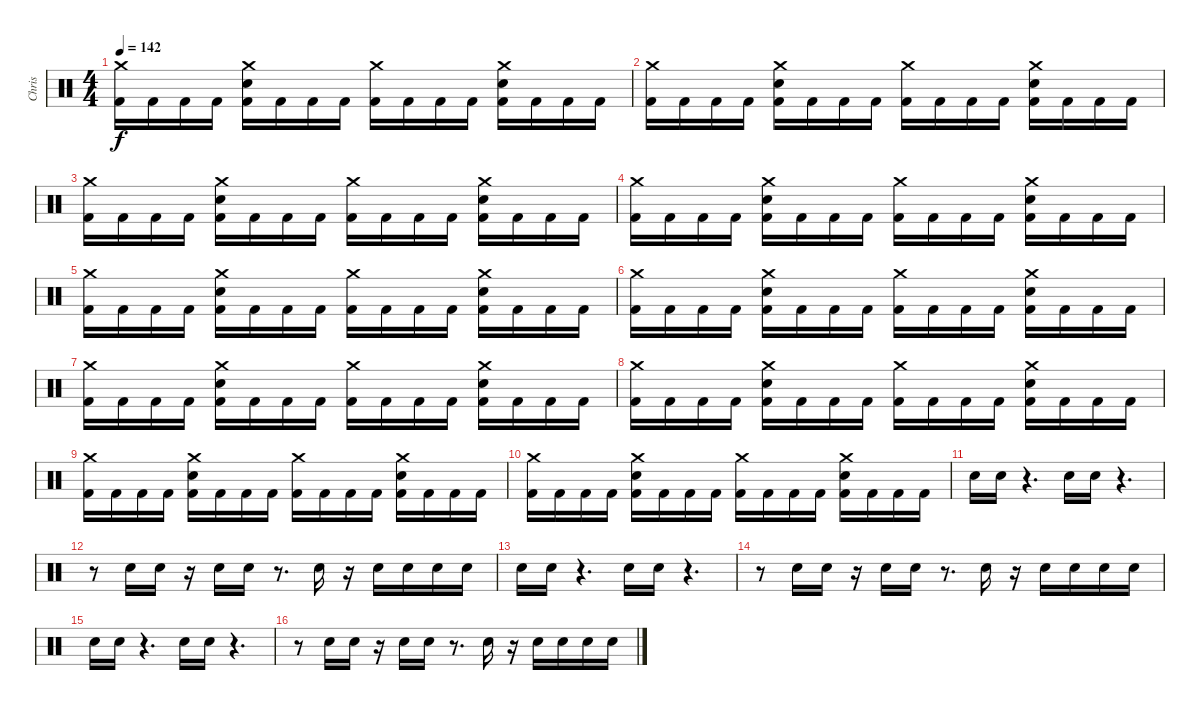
\track ("Chris" "Chris") {instrument percussion}
\staff {score}
\articulation defaults
\ts (4 4)
\tempo 142
\clef neutral
\ks c
("Crash medium (hit)" "Kick (hit) 2").16{dy f} "Kick (hit) 2".16 "Kick (hit) 2".16 "Kick (hit) 2".16 ("Crash medium (hit)" "Snare (hit) 2" "Kick (hit) 2").16 "Kick (hit) 2".16 "Kick (hit) 2".16 "Kick (hit) 2".16 ("Crash medium (hit)" "Kick (hit) 2").16 "Kick (hit) 2".16 "Kick (hit) 2".16 "Kick (hit) 2".16 ("Crash medium (hit)" "Snare (hit) 2" "Kick (hit) 2").16 "Kick (hit) 2".16 "Kick (hit) 2".16 "Kick (hit) 2".16 |
("Crash medium (hit)" "Kick (hit) 2").16 "Kick (hit) 2".16 "Kick (hit) 2".16 "Kick (hit) 2".16 ("Crash medium (hit)" "Snare (hit) 2" "Kick (hit) 2").16 "Kick (hit) 2".16 "Kick (hit) 2".16 "Kick (hit) 2".16 ("Crash medium (hit)" "Kick (hit) 2").16 "Kick (hit) 2".16 "Kick (hit) 2".16 "Kick (hit) 2".16 ("Crash medium (hit)" "Snare (hit) 2" "Kick (hit) 2").16 "Kick (hit) 2".16 "Kick (hit) 2".16 "Kick (hit) 2".16 |
("Crash medium (hit)" "Kick (hit) 2").16 "Kick (hit) 2".16 "Kick (hit) 2".16 "Kick (hit) 2".16 ("Crash medium (hit)" "Snare (hit) 2" "Kick (hit) 2").16 "Kick (hit) 2".16 "Kick (hit) 2".16 "Kick (hit) 2".16 ("Crash medium (hit)" "Kick (hit) 2").16 "Kick (hit) 2".16 "Kick (hit) 2".16 "Kick (hit) 2".16 ("Crash medium (hit)" "Snare (hit) 2" "Kick (hit) 2").16 "Kick (hit) 2".16 "Kick (hit) 2".16 "Kick (hit) 2".16 |
("Crash medium (hit)" "Kick (hit) 2").16 "Kick (hit) 2".16 "Kick (hit) 2".16 "Kick (hit) 2".16 ("Crash medium (hit)" "Snare (hit) 2" "Kick (hit) 2").16 "Kick (hit) 2".16 "Kick (hit) 2".16 "Kick (hit) 2".16 ("Crash medium (hit)" "Kick (hit) 2").16 "Kick (hit) 2".16 "Kick (hit) 2".16 "Kick (hit) 2".16 ("Crash medium (hit)" "Snare (hit) 2" "Kick (hit) 2").16 "Kick (hit) 2".16 "Kick (hit) 2".16 "Kick (hit) 2".16 |
("Crash medium (hit)" "Kick (hit) 2").16 "Kick (hit) 2".16 "Kick (hit) 2".16 "Kick (hit) 2".16 ("Crash medium (hit)" "Snare (hit) 2" "Kick (hit) 2").16 "Kick (hit) 2".16 "Kick (hit) 2".16 "Kick (hit) 2".16 ("Crash medium (hit)" "Kick (hit) 2").16 "Kick (hit) 2".16 "Kick (hit) 2".16 "Kick (hit) 2".16 ("Crash medium (hit)" "Snare (hit) 2" "Kick (hit) 2").16 "Kick (hit) 2".16 "Kick (hit) 2".16 "Kick (hit) 2".16 |
("Crash medium (hit)" "Kick (hit) 2").16 "Kick (hit) 2".16 "Kick (hit) 2".16 "Kick (hit) 2".16 ("Crash medium (hit)" "Snare (hit) 2" "Kick (hit) 2").16 "Kick (hit) 2".16 "Kick (hit) 2".16 "Kick (hit) 2".16 ("Crash medium (hit)" "Kick (hit) 2").16 "Kick (hit) 2".16 "Kick (hit) 2".16 "Kick (hit) 2".16 ("Crash medium (hit)" "Snare (hit) 2" "Kick (hit) 2").16 "Kick (hit) 2".16 "Kick (hit) 2".16 "Kick (hit) 2".16 |
("Crash medium (hit)" "Kick (hit) 2").16 "Kick (hit) 2".16 "Kick (hit) 2".16 "Kick (hit) 2".16 ("Crash medium (hit)" "Snare (hit) 2" "Kick (hit) 2").16 "Kick (hit) 2".16 "Kick (hit) 2".16 "Kick (hit) 2".16 ("Crash medium (hit)" "Kick (hit) 2").16 "Kick (hit) 2".16 "Kick (hit) 2".16 "Kick (hit) 2".16 ("Crash medium (hit)" "Snare (hit) 2" "Kick (hit) 2").16 "Kick (hit) 2".16 "Kick (hit) 2".16 "Kick (hit) 2".16 |
("Crash medium (hit)" "Kick (hit) 2").16 "Kick (hit) 2".16 "Kick (hit) 2".16 "Kick (hit) 2".16 ("Crash medium (hit)" "Snare (hit) 2" "Kick (hit) 2").16 "Kick (hit) 2".16 "Kick (hit) 2".16 "Kick (hit) 2".16 ("Crash medium (hit)" "Kick (hit) 2").16 "Kick (hit) 2".16 "Kick (hit) 2".16 "Kick (hit) 2".16 ("Crash medium (hit)" "Snare (hit) 2" "Kick (hit) 2").16 "Kick (hit) 2".16 "Kick (hit) 2".16 "Kick (hit) 2".16 |
("Crash medium (hit)" "Kick (hit) 2").16 "Kick (hit) 2".16 "Kick (hit) 2".16 "Kick (hit) 2".16 ("Crash medium (hit)" "Snare (hit) 2" "Kick (hit) 2").16 "Kick (hit) 2".16 "Kick (hit) 2".16 "Kick (hit) 2".16 ("Crash medium (hit)" "Kick (hit) 2").16 "Kick (hit) 2".16 "Kick (hit) 2".16 "Kick (hit) 2".16 ("Crash medium (hit)" "Snare (hit) 2" "Kick (hit) 2").16 "Kick (hit) 2".16 "Kick (hit) 2".16 "Kick (hit) 2".16 |
("Crash medium (hit)" "Kick (hit) 2").16 "Kick (hit) 2".16 "Kick (hit) 2".16 "Kick (hit) 2".16 ("Crash medium (hit)" "Snare (hit) 2" "Kick (hit) 2").16 "Kick (hit) 2".16 "Kick (hit) 2".16 "Kick (hit) 2".16 ("Crash medium (hit)" "Kick (hit) 2").16 "Kick (hit) 2".16 "Kick (hit) 2".16 "Kick (hit) 2".16 ("Crash medium (hit)" "Snare (hit) 2" "Kick (hit) 2").16 "Kick (hit) 2".16 "Kick (hit) 2".16 "Kick (hit) 2".16 |
"Snare (hit) 2".16 "Snare (hit) 2".16 r.4{d} "Snare (hit) 2".16 "Snare (hit) 2".16 r.4{d} |
r.8 "Snare (hit) 2".16 "Snare (hit) 2".16 r.16 "Snare (hit) 2".16 "Snare (hit) 2".16 r.8{d} "Snare (hit) 2".16 r.16 "Snare (hit) 2".16 "Snare (hit) 2".16 "Snare (hit) 2".16 "Snare (hit) 2".16 |
"Snare (hit) 2".16 "Snare (hit) 2".16 r.4{d} "Snare (hit) 2".16 "Snare (hit) 2".16 r.4{d} |
r.8 "Snare (hit) 2".16 "Snare (hit) 2".16 r.16 "Snare (hit) 2".16 "Snare (hit) 2".16 r.8{d} "Snare (hit) 2".16 r.16 "Snare (hit) 2".16 "Snare (hit) 2".16 "Snare (hit) 2".16 "Snare (hit) 2".16 |
"Snare (hit) 2".16 "Snare (hit) 2".16 r.4{d} "Snare (hit) 2".16 "Snare (hit) 2".16 r.4{d} |
r.8 "Snare (hit) 2".16 "Snare (hit) 2".16 r.16 "Snare (hit) 2".16 "Snare (hit) 2".16 r.8{d} "Snare (hit) 2".16 r.16 "Snare (hit) 2".16 "Snare (hit) 2".16 "Snare (hit) 2".16 "Snare (hit) 2".16
